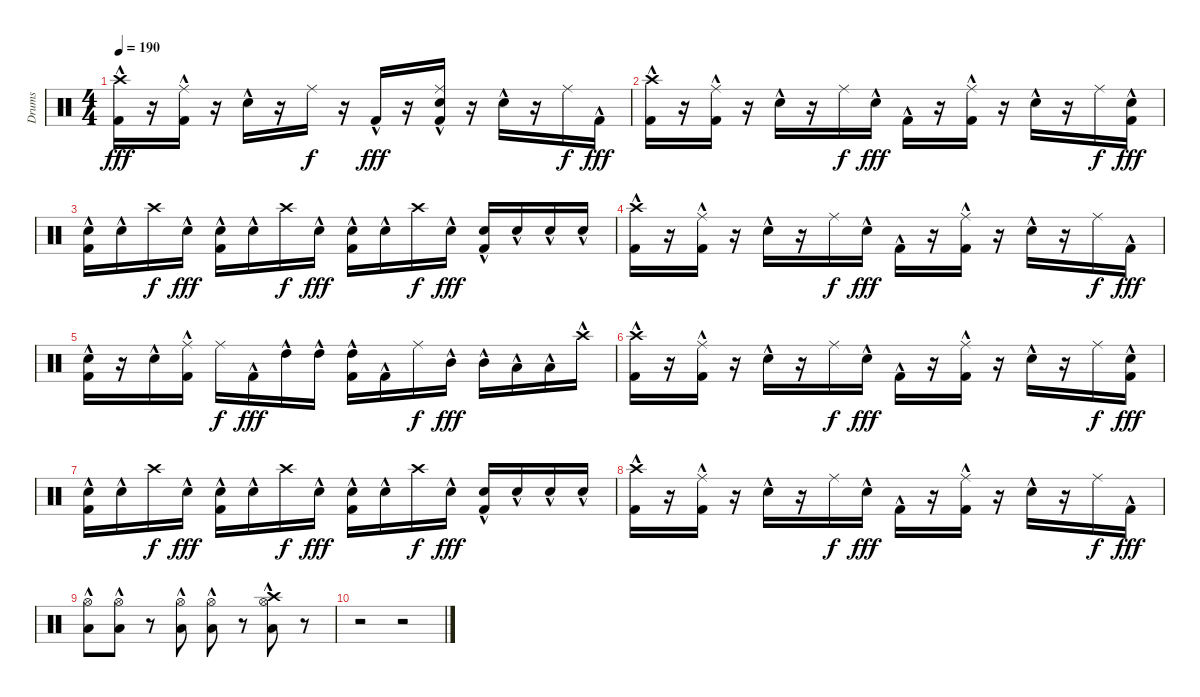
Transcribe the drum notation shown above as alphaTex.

\track ("Drums" "Drums") {instrument percussion}
\staff {score}
\articulation defaults
\ts (4 4)
\tempo 190
\clef neutral
\ks c
("Crash high (hit)" "Kick (hit) 2"{hac}).16{dy fff} r.16 ("Ride (middle)" "Kick (hit) 2"{hac}).16 r.16 "Snare (hit) 2"{hac}.16 r.16 "Ride (middle)".16{dy f} r.16 "Kick (hit) 2"{hac}.16{dy fff} r.16 ("Ride (middle)" "Snare (hit) 2"{hac} "Kick (hit) 2"{hac}).16 r.16 "Snare (hit) 2"{hac}.16 r.16 "Ride (middle)".16{dy f} "Kick (hit) 2"{hac}.16{dy fff} |
("Crash high (hit)" "Kick (hit) 2"{hac}).16 r.16 ("Ride (middle)" "Kick (hit) 2"{hac}).16 r.16 "Snare (hit) 2"{hac}.16 r.16 "Ride (middle)".16{dy f} "Snare (hit) 2"{hac}.16{dy fff} "Kick (hit) 2"{hac}.16 r.16 ("Ride (middle)" "Kick (hit) 2"{hac}).16 r.16 "Snare (hit) 2"{hac}.16 r.16 "Ride (middle)".16{dy f} ("Snare (hit) 2" "Kick (hit) 2"{hac}).16{dy fff} |
("Snare (hit) 2"{hac} "Kick (hit) 2"{hac}).16 "Snare (hit) 2"{hac}.16 "Crash high (hit)".16{dy f} "Snare (hit) 2"{hac}.16{dy fff} ("Snare (hit) 2"{hac} "Kick (hit) 2"{hac}).16 "Snare (hit) 2"{hac}.16 "Crash high (hit)".16{dy f} "Snare (hit) 2"{hac}.16{dy fff} ("Snare (hit) 2"{hac} "Kick (hit) 2"{hac}).16 "Snare (hit) 2"{hac}.16 "Crash high (hit)".16{dy f} "Snare (hit) 2"{hac}.16{dy fff} ("Snare (hit) 2"{hac} "Kick (hit) 2"{hac}).16 "Snare (hit) 2"{hac}.16 "Snare (hit) 2"{hac}.16 "Snare (hit) 2"{hac}.16 |
("Crash high (hit)" "Kick (hit) 2"{hac}).16 r.16 ("Ride (middle)" "Kick (hit) 2"{hac}).16 r.16 "Snare (hit) 2"{hac}.16 r.16 "Ride (middle)".16{dy f} "Snare (hit) 2"{hac}.16{dy fff} "Kick (hit) 2"{hac}.16 r.16 ("Ride (middle)" "Kick (hit) 2"{hac}).16 r.16 "Snare (hit) 2"{hac}.16 r.16 "Ride (middle)".16{dy f} "Kick (hit) 2"{hac}.16{dy fff} |
("Snare (hit) 2" "Kick (hit) 2"{hac}).16 r.16 "Snare (hit) 2"{hac}.16 ("Ride (middle)" "Kick (hit) 2"{hac}).16 "Ride (middle)".16{dy f} "Kick (hit) 2"{hac}.16{dy fff} "High Tom (hit)"{hac}.16 "High Tom (hit)"{hac}.16 ("High Tom (hit)"{hac} "Kick (hit) 2"{hac}).16 "Kick (hit) 2"{hac}.16 "Ride (middle)".16{dy f} "Mid Tom (hit)"{hac}.16{dy fff} "Mid Tom (hit)"{hac}.16 "Low Tom (hit)"{hac}.16 "Low Tom (hit)"{hac}.16 "Crash high (hit)"{hac}.16 |
("Crash high (hit)" "Kick (hit) 2"{hac}).16 r.16 ("Ride (middle)" "Kick (hit) 2"{hac}).16 r.16 "Snare (hit) 2"{hac}.16 r.16 "Ride (middle)".16{dy f} "Snare (hit) 2"{hac}.16{dy fff} "Kick (hit) 2"{hac}.16 r.16 ("Ride (middle)" "Kick (hit) 2"{hac}).16 r.16 "Snare (hit) 2"{hac}.16 r.16 "Ride (middle)".16{dy f} ("Snare (hit) 2" "Kick (hit) 2"{hac}).16{dy fff} |
("Snare (hit) 2"{hac} "Kick (hit) 2"{hac}).16 "Snare (hit) 2"{hac}.16 "Crash high (hit)".16{dy f} "Snare (hit) 2"{hac}.16{dy fff} ("Snare (hit) 2"{hac} "Kick (hit) 2"{hac}).16 "Snare (hit) 2"{hac}.16 "Crash high (hit)".16{dy f} "Snare (hit) 2"{hac}.16{dy fff} ("Snare (hit) 2"{hac} "Kick (hit) 2"{hac}).16 "Snare (hit) 2"{hac}.16 "Crash high (hit)".16{dy f} "Snare (hit) 2"{hac}.16{dy fff} ("Snare (hit) 2"{hac} "Kick (hit) 2"{hac}).16 "Snare (hit) 2"{hac}.16 "Snare (hit) 2"{hac}.16 "Snare (hit) 2"{hac}.16 |
("Crash high (hit)" "Kick (hit) 2"{hac}).16 r.16 ("Ride (middle)" "Kick (hit) 2"{hac}).16 r.16 "Snare (hit) 2"{hac}.16 r.16 "Ride (middle)".16{dy f} "Snare (hit) 2"{hac}.16{dy fff} "Kick (hit) 2"{hac}.16 r.16 ("Ride (middle)" "Kick (hit) 2"{hac}).16 r.16 "Snare (hit) 2"{hac}.16 r.16 "Ride (middle)".16{dy f} "Kick (hit) 2"{hac}.16{dy fff} |
("Hi-Hat (open)" "Low Floor Tom (hit)"{hac}).8 ("Hi-Hat (open)" "Low Floor Tom (hit)"{hac}).8 r.8 ("Hi-Hat (open)" "Low Floor Tom (hit)"{hac}).8 ("Hi-Hat (open)" "Low Floor Tom (hit)"{hac}).8 r.8 ("Hi-Hat (open)" "Crash high (hit)" "Low Floor Tom (hit)"{hac}).8 r.8 |
r.2 r.2
